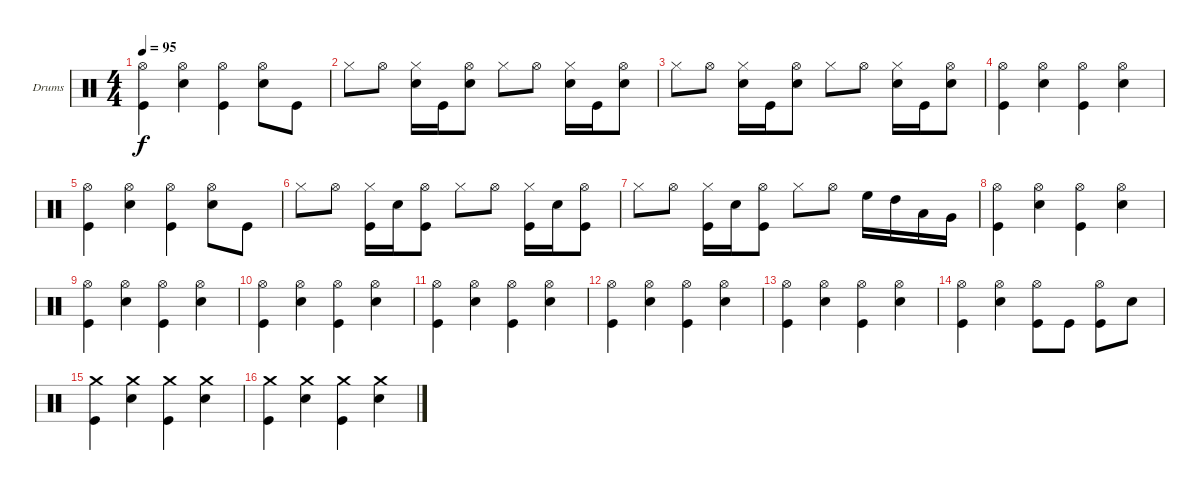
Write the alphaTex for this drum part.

\bracketExtendMode groupsimilarinstruments
\firstSystemTrackNameOrientation horizontal
\otherSystemsTrackNameOrientation horizontal
\track ("Drumkit" "Drums") {instrument percussion}
\staff {score}
\articulation defaults
\ts (4 4)
\tempo 95
\clef neutral
\ks c
("Hi-Hat (open)" "Kick (hit)").4{dy f} ("Hi-Hat (open)" "Snare (hit) 2").4 ("Hi-Hat (open)" "Kick (hit)").4 ("Hi-Hat (open)" "Snare (hit) 2").8 "Kick (hit)".8 |
"Hi-Hat (closed)".8 "Hi-Hat (open)".8 ("Hi-Hat (closed)" "Snare (hit) 2").16 "Kick (hit)".16 ("Hi-Hat (open)" "Snare (hit) 2").8 "Hi-Hat (closed)".8 "Hi-Hat (open)".8 ("Hi-Hat (closed)" "Snare (hit) 2").16 "Kick (hit)".16 ("Hi-Hat (open)" "Snare (hit) 2").8 |
"Hi-Hat (closed)".8 "Hi-Hat (open)".8 ("Hi-Hat (closed)" "Snare (hit) 2").16 "Kick (hit)".16 ("Hi-Hat (open)" "Snare (hit) 2").8 "Hi-Hat (closed)".8 "Hi-Hat (open)".8 ("Hi-Hat (closed)" "Snare (hit) 2").16 "Kick (hit)".16 ("Hi-Hat (open)" "Snare (hit) 2").8 |
("Hi-Hat (open)" "Kick (hit)").4 ("Hi-Hat (open)" "Snare (hit) 2").4 ("Hi-Hat (open)" "Kick (hit)").4 ("Hi-Hat (open)" "Snare (hit) 2").4 |
("Hi-Hat (open)" "Kick (hit)").4 ("Hi-Hat (open)" "Snare (hit) 2").4 ("Hi-Hat (open)" "Kick (hit)").4 ("Hi-Hat (open)" "Snare (hit) 2").8 "Kick (hit)".8 |
"Hi-Hat (closed)".8 "Hi-Hat (open)".8 ("Hi-Hat (closed)" "Kick (hit)").16 "Snare (hit) 2".16 ("Hi-Hat (open)" "Kick (hit)").8 "Hi-Hat (closed)".8 "Hi-Hat (open)".8 ("Hi-Hat (closed)" "Kick (hit)").16 "Snare (hit) 2".16 ("Hi-Hat (open)" "Kick (hit)").8 |
"Hi-Hat (closed)".8 "Hi-Hat (open)".8 ("Hi-Hat (closed)" "Kick (hit)").16 "Snare (hit) 2".16 ("Hi-Hat (open)" "Kick (hit)").8 "Hi-Hat (closed)".8 "Hi-Hat (open)".8 "High Floor Tom (hit)".16 "High Tom (hit)".16 "Low Tom (hit)".16 "Very Low Tom (hit)".16 |
("Hi-Hat (open)" "Kick (hit)").4 ("Hi-Hat (open)" "Snare (hit) 2").4 ("Hi-Hat (open)" "Kick (hit)").4 ("Hi-Hat (open)" "Snare (hit) 2").4 |
("Hi-Hat (open)" "Kick (hit)").4 ("Hi-Hat (open)" "Snare (hit) 2").4 ("Hi-Hat (open)" "Kick (hit)").4 ("Hi-Hat (open)" "Snare (hit) 2").4 |
("Hi-Hat (open)" "Kick (hit)").4 ("Hi-Hat (open)" "Snare (hit) 2").4 ("Hi-Hat (open)" "Kick (hit)").4 ("Hi-Hat (open)" "Snare (hit) 2").4 |
("Hi-Hat (open)" "Kick (hit)").4 ("Hi-Hat (open)" "Snare (hit) 2").4 ("Hi-Hat (open)" "Kick (hit)").4 ("Hi-Hat (open)" "Snare (hit) 2").4 |
("Hi-Hat (open)" "Kick (hit)").4 ("Hi-Hat (open)" "Snare (hit) 2").4 ("Hi-Hat (open)" "Kick (hit)").4 ("Hi-Hat (open)" "Snare (hit) 2").4 |
("Hi-Hat (open)" "Kick (hit)").4 ("Hi-Hat (open)" "Snare (hit) 2").4 ("Hi-Hat (open)" "Kick (hit)").4 ("Hi-Hat (open)" "Snare (hit) 2").4 |
("Hi-Hat (open)" "Kick (hit)").4 ("Hi-Hat (open)" "Snare (hit) 2").4 ("Hi-Hat (open)" "Kick (hit)").8 "Kick (hit)".8 ("Hi-Hat (open)" "Kick (hit)").8 "Snare (hit) 2".8 |
("Crash medium (hit)" "Kick (hit)").4 ("Crash medium (hit)" "Snare (hit) 2").4 ("Crash medium (hit)" "Kick (hit)").4 ("Crash medium (hit)" "Snare (hit) 2").4 |
("Crash medium (hit)" "Kick (hit)").4 ("Crash medium (hit)" "Snare (hit) 2").4 ("Crash medium (hit)" "Kick (hit)").4 ("Crash medium (hit)" "Snare (hit) 2").4
